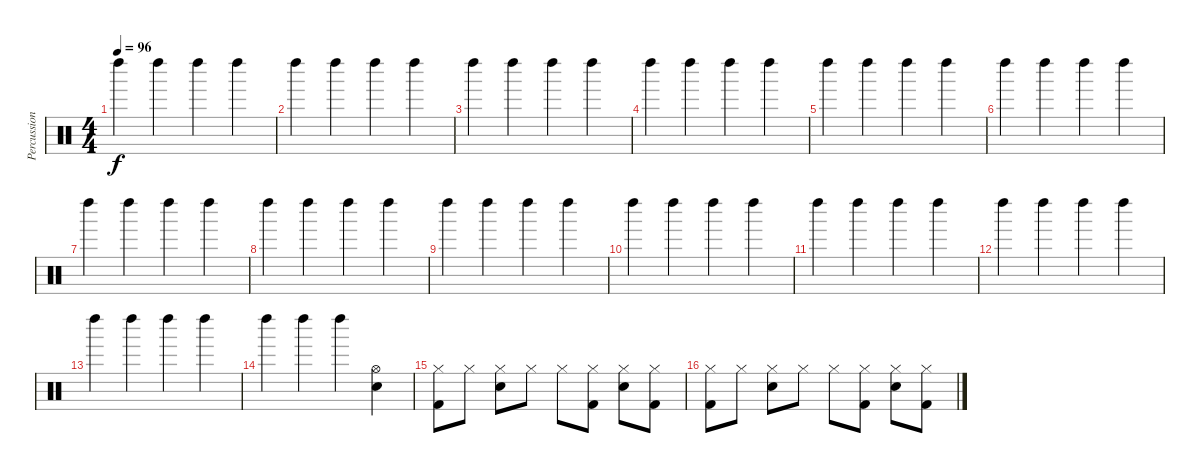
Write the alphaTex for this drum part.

\track ("Percussion" "Percussion") {instrument percussion}
\staff {score}
\articulation defaults
\ts (4 4)
\tempo 96
\clef neutral
\ks c "Left Maraca (hit)".4{dy f} "Left Maraca (hit)".4 "Left Maraca (hit)".4 "Left Maraca (hit)".4
|
"Left Maraca (hit)".4 "Left Maraca (hit)".4 "Left Maraca (hit)".4 "Left Maraca (hit)".4 |
"Left Maraca (hit)".4 "Left Maraca (hit)".4 "Left Maraca (hit)".4 "Left Maraca (hit)".4 |
"Left Maraca (hit)".4 "Left Maraca (hit)".4 "Left Maraca (hit)".4 "Left Maraca (hit)".4 |
"Left Maraca (hit)".4 "Left Maraca (hit)".4 "Left Maraca (hit)".4 "Left Maraca (hit)".4 |
"Left Maraca (hit)".4 "Left Maraca (hit)".4 "Left Maraca (hit)".4 "Left Maraca (hit)".4 |
"Left Maraca (hit)".4 "Left Maraca (hit)".4 "Left Maraca (hit)".4 "Left Maraca (hit)".4 |
"Left Maraca (hit)".4 "Left Maraca (hit)".4 "Left Maraca (hit)".4 "Left Maraca (hit)".4 |
"Left Maraca (hit)".4 "Left Maraca (hit)".4 "Left Maraca (hit)".4 "Left Maraca (hit)".4 |
"Left Maraca (hit)".4 "Left Maraca (hit)".4 "Left Maraca (hit)".4 "Left Maraca (hit)".4 |
"Left Maraca (hit)".4 "Left Maraca (hit)".4 "Left Maraca (hit)".4 "Left Maraca (hit)".4 |
"Left Maraca (hit)".4 "Left Maraca (hit)".4 "Left Maraca (hit)".4 "Left Maraca (hit)".4 |
"Left Maraca (hit)".4 "Left Maraca (hit)".4 "Left Maraca (hit)".4 "Left Maraca (hit)".4 |
"Left Maraca (hit)".4 "Left Maraca (hit)".4 "Left Maraca (hit)".4 ("Hi-Hat (open)" "Snare (hit) 2").4 |
("Hi-Hat (closed)" "Kick (hit) 2").8 "Hi-Hat (closed)".8 ("Hi-Hat (closed)" "Snare (hit) 2").8 "Hi-Hat (closed)".8 "Hi-Hat (closed)".8 ("Hi-Hat (closed)" "Kick (hit) 2").8 ("Hi-Hat (closed)" "Snare (hit) 2").8 ("Hi-Hat (closed)" "Kick (hit) 2").8 |
("Hi-Hat (closed)" "Kick (hit) 2").8 "Hi-Hat (closed)".8 ("Hi-Hat (closed)" "Snare (hit) 2").8 "Hi-Hat (closed)".8 "Hi-Hat (closed)".8 ("Hi-Hat (closed)" "Kick (hit) 2").8 ("Hi-Hat (closed)" "Snare (hit) 2").8 ("Hi-Hat (closed)" "Kick (hit) 2").8
